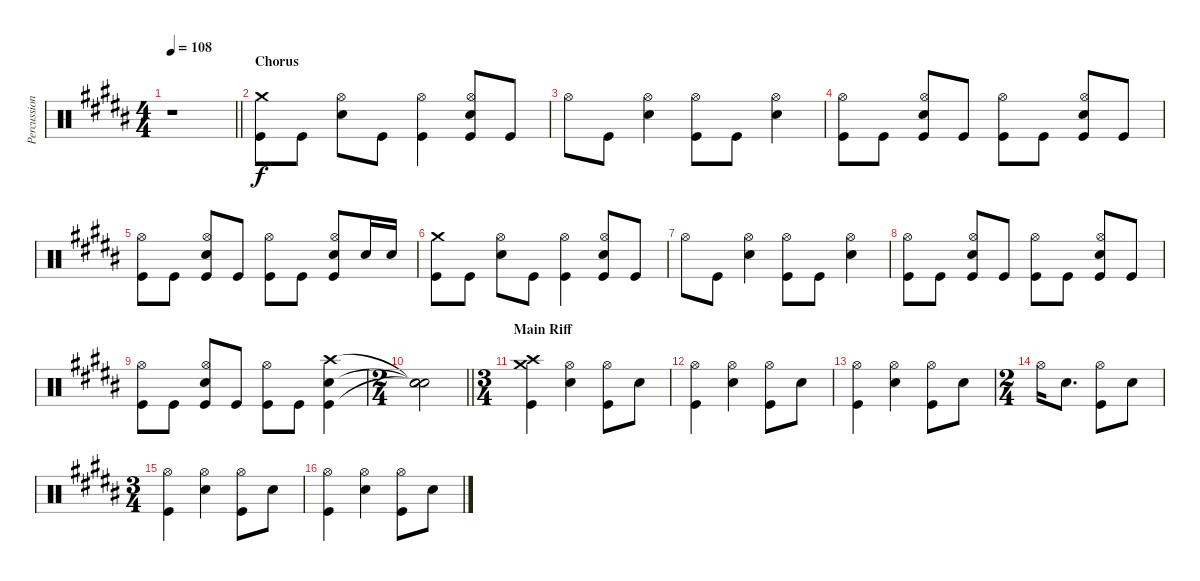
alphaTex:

\track ("Percussion" "Percussion") {instrument percussion}
\staff {score}
\articulation defaults
\ts (4 4)
\tempo 108
\clef neutral
\barLineRight lightlight
\ks b
r.1{dy f} |
\section ("" "Chorus")
("Crash medium (hit)" "Kick (hit)").8 "Kick (hit)".8 ("Hi-Hat (open)" "Electric Snare (hit)").8 "Kick (hit)".8 ("Hi-Hat (open)" "Kick (hit)").4 ("Hi-Hat (open)" "Electric Snare (hit)" "Kick (hit)").8 "Kick (hit)".8 |
"Hi-Hat (open)".8 "Kick (hit)".8 ("Hi-Hat (open)" "Electric Snare (hit)").4 ("Hi-Hat (open)" "Kick (hit)").8 "Kick (hit)".8 ("Hi-Hat (open)" "Electric Snare (hit)").4 |
("Hi-Hat (open)" "Kick (hit)").8 "Kick (hit)".8 ("Hi-Hat (open)" "Electric Snare (hit)" "Kick (hit)").8 "Kick (hit)".8 ("Hi-Hat (open)" "Kick (hit)").8 "Kick (hit)".8 ("Hi-Hat (open)" "Electric Snare (hit)" "Kick (hit)").8 "Kick (hit)".8 |
("Hi-Hat (open)" "Kick (hit)").8 "Kick (hit)".8 ("Hi-Hat (open)" "Electric Snare (hit)" "Kick (hit)").8 "Kick (hit)".8 ("Hi-Hat (open)" "Kick (hit)").8 "Kick (hit)".8 ("Hi-Hat (open)" "Electric Snare (hit)" "Kick (hit)").8 "Electric Snare (hit)".16 "Electric Snare (hit)".16 |
("Crash medium (hit)" "Kick (hit)").8 "Kick (hit)".8 ("Hi-Hat (open)" "Electric Snare (hit)").8 "Kick (hit)".8 ("Hi-Hat (open)" "Kick (hit)").4 ("Hi-Hat (open)" "Electric Snare (hit)" "Kick (hit)").8 "Kick (hit)".8 |
"Hi-Hat (open)".8 "Kick (hit)".8 ("Hi-Hat (open)" "Electric Snare (hit)").4 ("Hi-Hat (open)" "Kick (hit)").8 "Kick (hit)".8 ("Hi-Hat (open)" "Electric Snare (hit)").4 |
("Hi-Hat (open)" "Kick (hit)").8 "Kick (hit)".8 ("Hi-Hat (open)" "Electric Snare (hit)" "Kick (hit)").8 "Kick (hit)".8 ("Hi-Hat (open)" "Kick (hit)").8 "Kick (hit)".8 ("Hi-Hat (open)" "Electric Snare (hit)" "Kick (hit)").8 "Kick (hit)".8 |
("Hi-Hat (open)" "Kick (hit)").8 "Kick (hit)".8 ("Hi-Hat (open)" "Electric Snare (hit)" "Kick (hit)").8 "Kick (hit)".8 ("Hi-Hat (open)" "Kick (hit)").8 "Kick (hit)".8 ("Crash high (hit)" "Electric Snare (hit)" "Kick (hit)").4 |
\ts (2 4)
\barLineRight lightlight
("Snare (hit)"{t} "Snare (hit)"{t} "Snare (hit)"{t}).2 |
\ts (3 4)
\section ("" "Main Riff")
("Crash high (hit)" "Crash medium (hit)" "Kick (hit)").4 ("Hi-Hat (open)" "Electric Snare (hit)").4 ("Hi-Hat (open)" "Kick (hit)").8 "Electric Snare (hit)".8 |
("Hi-Hat (open)" "Kick (hit)").4 ("Hi-Hat (open)" "Electric Snare (hit)").4 ("Hi-Hat (open)" "Kick (hit)").8 "Electric Snare (hit)".8 |
("Hi-Hat (open)" "Kick (hit)").4 ("Hi-Hat (open)" "Electric Snare (hit)").4 ("Hi-Hat (open)" "Kick (hit)").8 "Electric Snare (hit)".8 |
\ts (2 4)
"Hi-Hat (open)".16 "Electric Snare (hit)".8{d} ("Hi-Hat (open)" "Kick (hit)").8 "Electric Snare (hit)".8 |
\ts (3 4)
("Hi-Hat (open)" "Kick (hit)").4 ("Hi-Hat (open)" "Electric Snare (hit)").4 ("Hi-Hat (open)" "Kick (hit)").8 "Electric Snare (hit)".8 |
("Hi-Hat (open)" "Kick (hit)").4 ("Hi-Hat (open)" "Electric Snare (hit)").4 ("Hi-Hat (open)" "Kick (hit)").8 "Electric Snare (hit)".8
